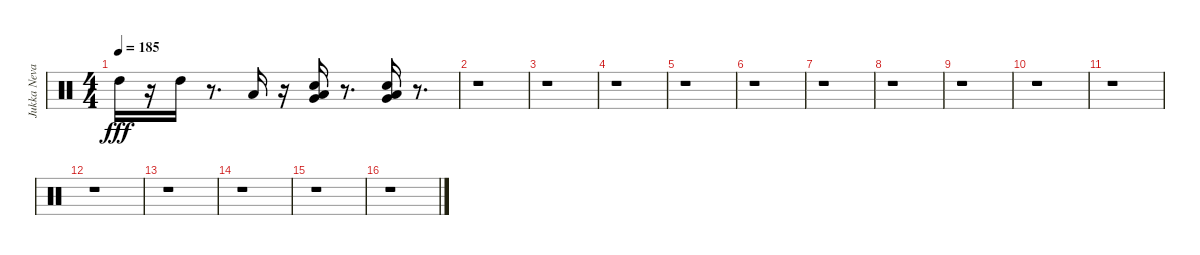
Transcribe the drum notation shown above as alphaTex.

\track ("Jukka Nevalinen" "Jukka Neva") {instrument percussion}
\staff {score}
\articulation defaults
\ts (4 4)
\tempo 185
\clef neutral
\ks c "High Tom (hit)".16{dy fff}
r.16 "High Tom (hit)".16 r.8{d} "Low Tom (hit)".16 r.16 ("Snare (hit) 2" "Low Floor Tom (hit)" "Very Low Tom (hit)").16 r.8{d} ("Snare (hit) 2" "Low Floor Tom (hit)" "Very Low Tom (hit)").16 r.8{d} |
r.1 |
r.1 |
r.1 |
r.1 |
r.1 |
r.1 |
r.1 |
r.1 |
r.1 |
r.1 |
r.1 |
r.1 |
r.1 |
r.1 |
r.1
